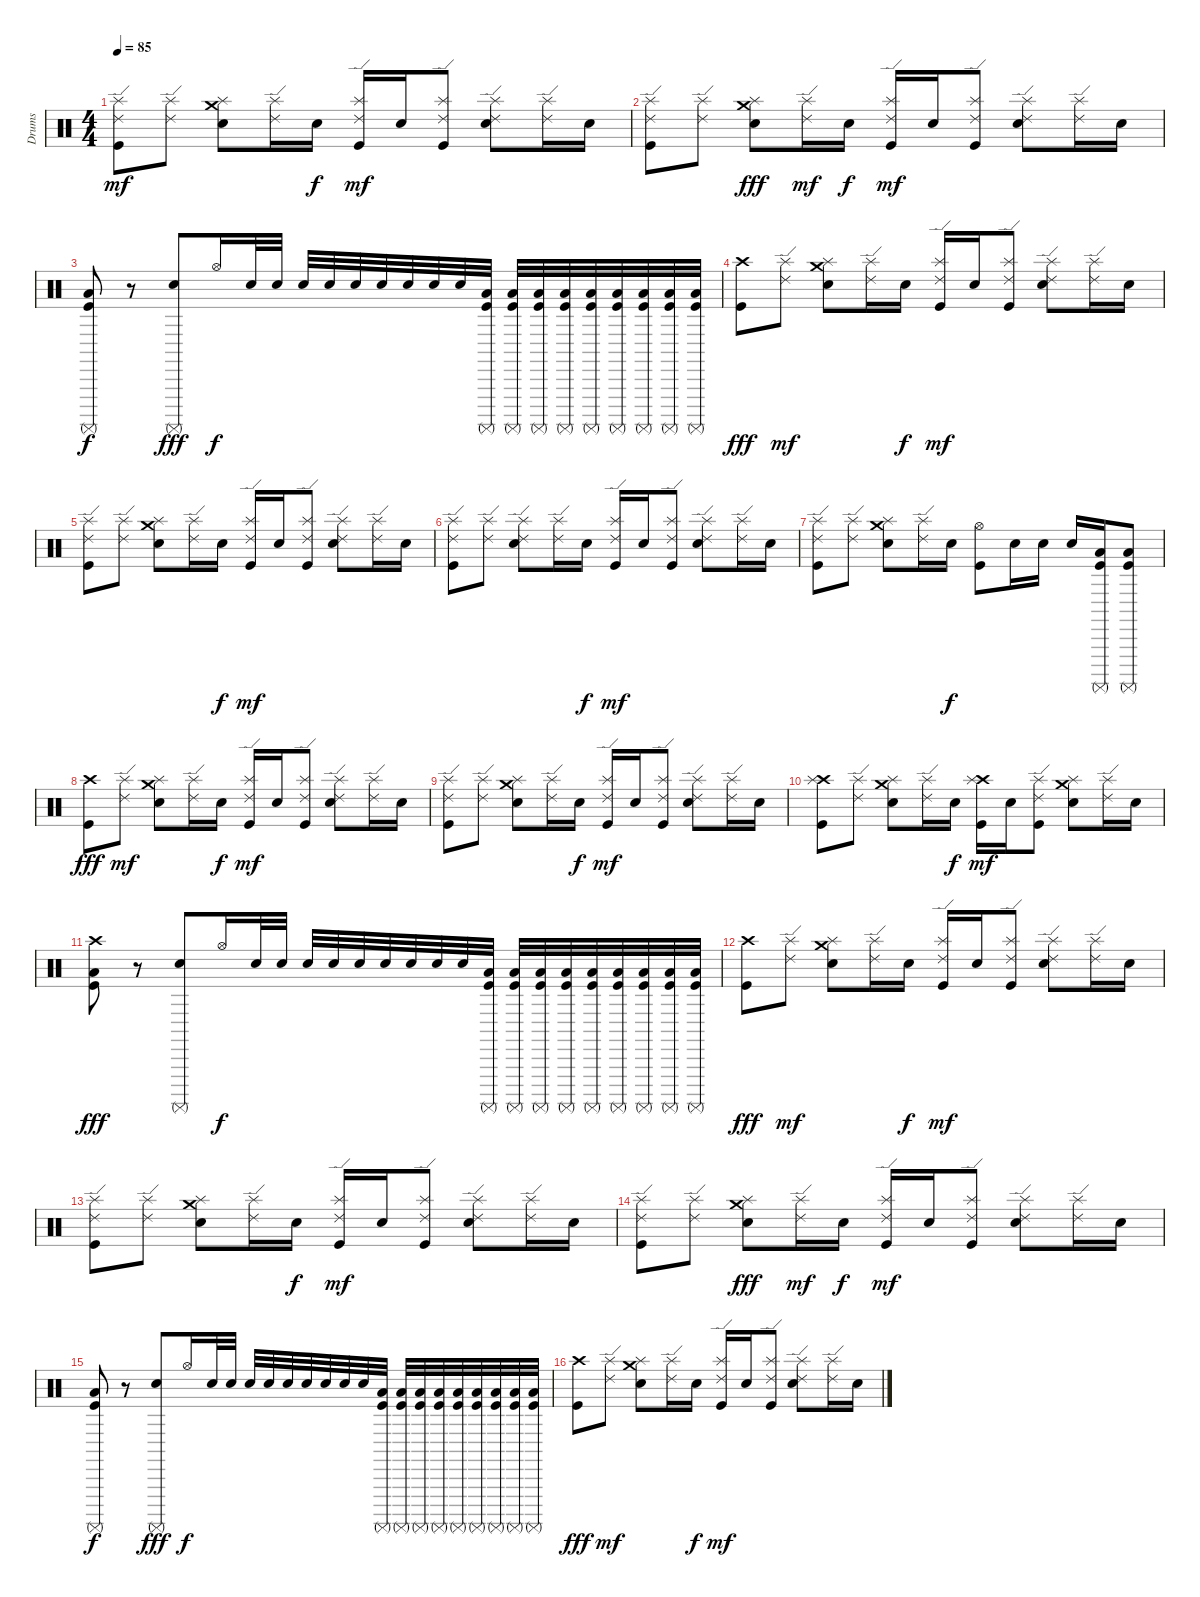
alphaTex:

\track ("Drums" "Drums") {instrument percussion}
\staff {score}
\articulation defaults
\ts (4 4)
\tempo 85
\clef neutral
\ks c
("Ride (edge) 2" "Splash (hit)" "Kick (hit)").8{dy mf} ("Ride (edge) 2" "Splash (hit)").8 ("Crash medium (hit)" "Splash (hit)" "Snare (hit) 2").8 ("Ride (edge) 2" "Splash (hit)").16 "Snare (hit) 2".16{dy f} ("Ride (edge) 2" "Splash (hit)" "Kick (hit)").16{dy mf} "Snare (hit) 2".16 ("Ride (edge) 2" "Splash (hit)" "Kick (hit)").8 ("Ride (edge) 2" "Splash (hit)" "Snare (hit) 2").8 ("Ride (edge) 2" "Splash (hit)").16 "Snare (hit) 2".16 |
("Ride (edge) 2" "Splash (hit)" "Kick (hit)").8 ("Ride (edge) 2" "Splash (hit)").8 ("Crash medium (hit)" "Splash (hit)" "Snare (hit) 2").8{dy fff} ("Ride (edge) 2" "Splash (hit)").16{dy mf} "Snare (hit) 2".16{dy f} ("Ride (edge) 2" "Splash (hit)" "Kick (hit)").16{dy mf} "Snare (hit) 2".16 ("Ride (edge) 2" "Splash (hit)" "Kick (hit)").8 ("Ride (edge) 2" "Splash (hit)" "Snare (hit) 2").8 ("Ride (edge) 2" "Splash (hit)").16 "Snare (hit) 2".16 |
("Surdo (mute)" "Low Floor Tom (hit)" "Kick (hit)").8{dy f} r.8 ("Surdo (mute)" "Snare (hit) 2").8{dy fff} "Hi-Hat (open)".16{dy f} "Snare (hit) 2".32 "Snare (hit) 2".32 "Snare (hit) 2".32 "Snare (hit) 2".32 "Snare (hit) 2".32 "Snare (hit) 2".32 "Snare (hit) 2".32 "Snare (hit) 2".32 "Snare (hit) 2".32 ("Surdo (mute)" "Low Floor Tom (hit)" "Kick (hit)").32 ("Surdo (mute)" "Low Floor Tom (hit)" "Kick (hit)").32 ("Surdo (mute)" "Low Floor Tom (hit)" "Kick (hit)").32 ("Surdo (mute)" "Low Floor Tom (hit)" "Kick (hit)").32 ("Surdo (mute)" "Low Floor Tom (hit)" "Kick (hit)").32 ("Surdo (mute)" "Low Floor Tom (hit)" "Kick (hit)").32 ("Surdo (mute)" "Low Floor Tom (hit)" "Kick (hit)").32 ("Surdo (mute)" "Low Floor Tom (hit)" "Kick (hit)").32 ("Surdo (mute)" "Low Floor Tom (hit)" "Kick (hit)").32 |
("Crash high (hit)" "Kick (hit)").8{dy fff} ("Ride (edge) 2" "Splash (hit)").8{dy mf} ("Crash medium (hit)" "Splash (hit)" "Snare (hit) 2").8 ("Ride (edge) 2" "Splash (hit)").16 "Snare (hit) 2".16{dy f} ("Ride (edge) 2" "Splash (hit)" "Kick (hit)").16{dy mf} "Snare (hit) 2".16 ("Ride (edge) 2" "Splash (hit)" "Kick (hit)").8 ("Ride (edge) 2" "Splash (hit)" "Snare (hit) 2").8 ("Ride (edge) 2" "Splash (hit)").16 "Snare (hit) 2".16 |
("Ride (edge) 2" "Splash (hit)" "Kick (hit)").8 ("Ride (edge) 2" "Splash (hit)").8 ("Crash medium (hit)" "Splash (hit)" "Snare (hit) 2").8 ("Ride (edge) 2" "Splash (hit)").16 "Snare (hit) 2".16{dy f} ("Ride (edge) 2" "Splash (hit)" "Kick (hit)").16{dy mf} "Snare (hit) 2".16 ("Ride (edge) 2" "Splash (hit)" "Kick (hit)").8 ("Ride (edge) 2" "Splash (hit)" "Snare (hit) 2").8 ("Ride (edge) 2" "Splash (hit)").16 "Snare (hit) 2".16 |
("Ride (edge) 2" "Splash (hit)" "Kick (hit)").8 ("Ride (edge) 2" "Splash (hit)").8 ("Ride (edge) 2" "Splash (hit)" "Snare (hit) 2").8 ("Ride (edge) 2" "Splash (hit)").16 "Snare (hit) 2".16{dy f} ("Ride (edge) 2" "Splash (hit)" "Kick (hit)").16{dy mf} "Snare (hit) 2".16 ("Ride (edge) 2" "Splash (hit)" "Kick (hit)").8 ("Ride (edge) 2" "Splash (hit)" "Snare (hit) 2").8 ("Ride (edge) 2" "Splash (hit)").16 "Snare (hit) 2".16 |
("Ride (edge) 2" "Splash (hit)" "Kick (hit)").8 ("Ride (edge) 2" "Splash (hit)").8 ("Crash medium (hit)" "Splash (hit)" "Snare (hit) 2").8 ("Ride (edge) 2" "Splash (hit)").16 "Snare (hit) 2".16{dy f} ("Hi-Hat (open)" "Kick (hit)").8 "Snare (hit) 2".16 "Snare (hit) 2".16 "Snare (hit) 2".16 ("Surdo (mute)" "Low Floor Tom (hit)" "Kick (hit)").16 ("Surdo (mute)" "Low Floor Tom (hit)" "Kick (hit)").8 |
("Crash high (hit)" "Kick (hit)").8{dy fff} ("Ride (edge) 2" "Splash (hit)").8{dy mf} ("Crash medium (hit)" "Splash (hit)" "Snare (hit) 2").8 ("Ride (edge) 2" "Splash (hit)").16 "Snare (hit) 2".16{dy f} ("Ride (edge) 2" "Splash (hit)" "Kick (hit)").16{dy mf} "Snare (hit) 2".16 ("Ride (edge) 2" "Splash (hit)" "Kick (hit)").8 ("Ride (edge) 2" "Splash (hit)" "Snare (hit) 2").8 ("Ride (edge) 2" "Splash (hit)").16 "Snare (hit) 2".16 |
("Ride (edge) 2" "Splash (hit)" "Kick (hit)").8 ("Ride (edge) 2" "Splash (hit)").8 ("Crash medium (hit)" "Splash (hit)" "Snare (hit) 2").8 ("Ride (edge) 2" "Splash (hit)").16 "Snare (hit) 2".16{dy f} ("Ride (edge) 2" "Splash (hit)" "Kick (hit)").16{dy mf} "Snare (hit) 2".16 ("Ride (edge) 2" "Splash (hit)" "Kick (hit)").8 ("Ride (edge) 2" "Splash (hit)" "Snare (hit) 2").8 ("Ride (edge) 2" "Splash (hit)").16 "Snare (hit) 2".16 |
("Crash high (hit)" "Splash (hit)" "Kick (hit)").8 ("Ride (edge) 2" "Splash (hit)").8 ("Crash medium (hit)" "Splash (hit)" "Snare (hit) 2").8 ("Ride (edge) 2" "Splash (hit)").16 "Snare (hit) 2".16{dy f} ("Crash high (hit)" "Splash (hit)" "Kick (hit)").16{dy mf} "Snare (hit) 2".16 ("Ride (edge) 2" "Splash (hit)" "Kick (hit)").8 ("Crash medium (hit)" "Splash (hit)" "Snare (hit) 2").8 ("Ride (edge) 2" "Splash (hit)").16 "Snare (hit) 2".16 |
("Crash high (hit)" "Low Floor Tom (hit)" "Kick (hit)").8{dy fff} r.8 ("Surdo (mute)" "Snare (hit) 2").8 "Hi-Hat (open)".16{dy f} "Snare (hit) 2".32 "Snare (hit) 2".32 "Snare (hit) 2".32 "Snare (hit) 2".32 "Snare (hit) 2".32 "Snare (hit) 2".32 "Snare (hit) 2".32 "Snare (hit) 2".32 "Snare (hit) 2".32 ("Surdo (mute)" "Low Floor Tom (hit)" "Kick (hit)").32 ("Surdo (mute)" "Low Floor Tom (hit)" "Kick (hit)").32 ("Surdo (mute)" "Low Floor Tom (hit)" "Kick (hit)").32 ("Surdo (mute)" "Low Floor Tom (hit)" "Kick (hit)").32 ("Surdo (mute)" "Low Floor Tom (hit)" "Kick (hit)").32 ("Surdo (mute)" "Low Floor Tom (hit)" "Kick (hit)").32 ("Surdo (mute)" "Low Floor Tom (hit)" "Kick (hit)").32 ("Surdo (mute)" "Low Floor Tom (hit)" "Kick (hit)").32 ("Surdo (mute)" "Low Floor Tom (hit)" "Kick (hit)").32 |
("Crash high (hit)" "Kick (hit)").8{dy fff} ("Ride (edge) 2" "Splash (hit)").8{dy mf} ("Crash medium (hit)" "Splash (hit)" "Snare (hit) 2").8 ("Ride (edge) 2" "Splash (hit)").16 "Snare (hit) 2".16{dy f} ("Ride (edge) 2" "Splash (hit)" "Kick (hit)").16{dy mf} "Snare (hit) 2".16 ("Ride (edge) 2" "Splash (hit)" "Kick (hit)").8 ("Ride (edge) 2" "Splash (hit)" "Snare (hit) 2").8 ("Ride (edge) 2" "Splash (hit)").16 "Snare (hit) 2".16 |
("Ride (edge) 2" "Splash (hit)" "Kick (hit)").8 ("Ride (edge) 2" "Splash (hit)").8 ("Crash medium (hit)" "Splash (hit)" "Snare (hit) 2").8 ("Ride (edge) 2" "Splash (hit)").16 "Snare (hit) 2".16{dy f} ("Ride (edge) 2" "Splash (hit)" "Kick (hit)").16{dy mf} "Snare (hit) 2".16 ("Ride (edge) 2" "Splash (hit)" "Kick (hit)").8 ("Ride (edge) 2" "Splash (hit)" "Snare (hit) 2").8 ("Ride (edge) 2" "Splash (hit)").16 "Snare (hit) 2".16 |
("Ride (edge) 2" "Splash (hit)" "Kick (hit)").8 ("Ride (edge) 2" "Splash (hit)").8 ("Crash medium (hit)" "Splash (hit)" "Snare (hit) 2").8{dy fff} ("Ride (edge) 2" "Splash (hit)").16{dy mf} "Snare (hit) 2".16{dy f} ("Ride (edge) 2" "Splash (hit)" "Kick (hit)").16{dy mf} "Snare (hit) 2".16 ("Ride (edge) 2" "Splash (hit)" "Kick (hit)").8 ("Ride (edge) 2" "Splash (hit)" "Snare (hit) 2").8 ("Ride (edge) 2" "Splash (hit)").16 "Snare (hit) 2".16 |
("Surdo (mute)" "Low Floor Tom (hit)" "Kick (hit)").8{dy f} r.8 ("Surdo (mute)" "Snare (hit) 2").8{dy fff} "Hi-Hat (open)".16{dy f} "Snare (hit) 2".32 "Snare (hit) 2".32 "Snare (hit) 2".32 "Snare (hit) 2".32 "Snare (hit) 2".32 "Snare (hit) 2".32 "Snare (hit) 2".32 "Snare (hit) 2".32 "Snare (hit) 2".32 ("Surdo (mute)" "Low Floor Tom (hit)" "Kick (hit)").32 ("Surdo (mute)" "Low Floor Tom (hit)" "Kick (hit)").32 ("Surdo (mute)" "Low Floor Tom (hit)" "Kick (hit)").32 ("Surdo (mute)" "Low Floor Tom (hit)" "Kick (hit)").32 ("Surdo (mute)" "Low Floor Tom (hit)" "Kick (hit)").32 ("Surdo (mute)" "Low Floor Tom (hit)" "Kick (hit)").32 ("Surdo (mute)" "Low Floor Tom (hit)" "Kick (hit)").32 ("Surdo (mute)" "Low Floor Tom (hit)" "Kick (hit)").32 ("Surdo (mute)" "Low Floor Tom (hit)" "Kick (hit)").32 |
("Crash high (hit)" "Kick (hit)").8{dy fff} ("Ride (edge) 2" "Splash (hit)").8{dy mf} ("Crash medium (hit)" "Splash (hit)" "Snare (hit) 2").8 ("Ride (edge) 2" "Splash (hit)").16 "Snare (hit) 2".16{dy f} ("Ride (edge) 2" "Splash (hit)" "Kick (hit)").16{dy mf} "Snare (hit) 2".16 ("Ride (edge) 2" "Splash (hit)" "Kick (hit)").8 ("Ride (edge) 2" "Splash (hit)" "Snare (hit) 2").8 ("Ride (edge) 2" "Splash (hit)").16 "Snare (hit) 2".16
